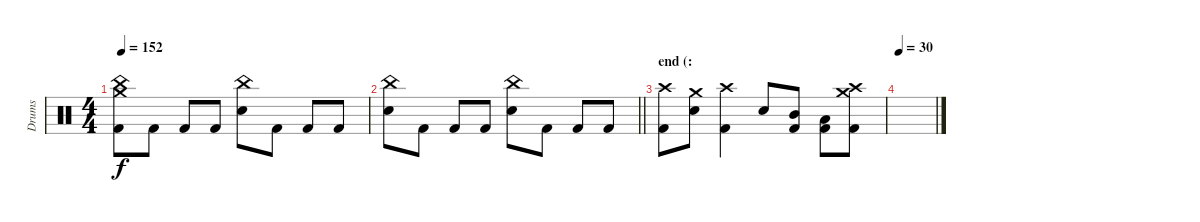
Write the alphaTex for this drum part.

\track ("Drums" "Drums") {instrument percussion}
\staff {score}
\articulation defaults
\ts (4 4)
\tempo 152
\clef neutral
\ks c
("Crash medium (hit)" "China (hit)" "Kick (hit) 2").8{dy f} "Kick (hit) 2".8 "Kick (hit) 2".8 "Kick (hit) 2".8 ("China (hit)" "Electric Snare (hit)").8 "Kick (hit) 2".8 "Kick (hit) 2".8 "Kick (hit) 2".8 |
\barLineRight lightlight
("China (hit)" "Electric Snare (hit)").8 "Kick (hit) 2".8 "Kick (hit) 2".8 "Kick (hit) 2".8 ("China (hit)" "Electric Snare (hit)").8 "Kick (hit) 2".8 "Kick (hit) 2".8 "Kick (hit) 2".8 |
\section ("" "end (:")
("Crash high (hit)" "Kick (hit) 2").8 ("Crash medium (hit)" "Electric Snare (hit)").8 ("Crash high (hit)" "Kick (hit) 2").4 "Electric Snare (hit)".8 ("Mid Tom (hit)" "Kick (hit) 2").8 ("Low Tom (hit)" "Kick (hit) 2").8 ("Crash high (hit)" "Crash medium (hit)" "Kick (hit) 2").8 |
\tempo 30
